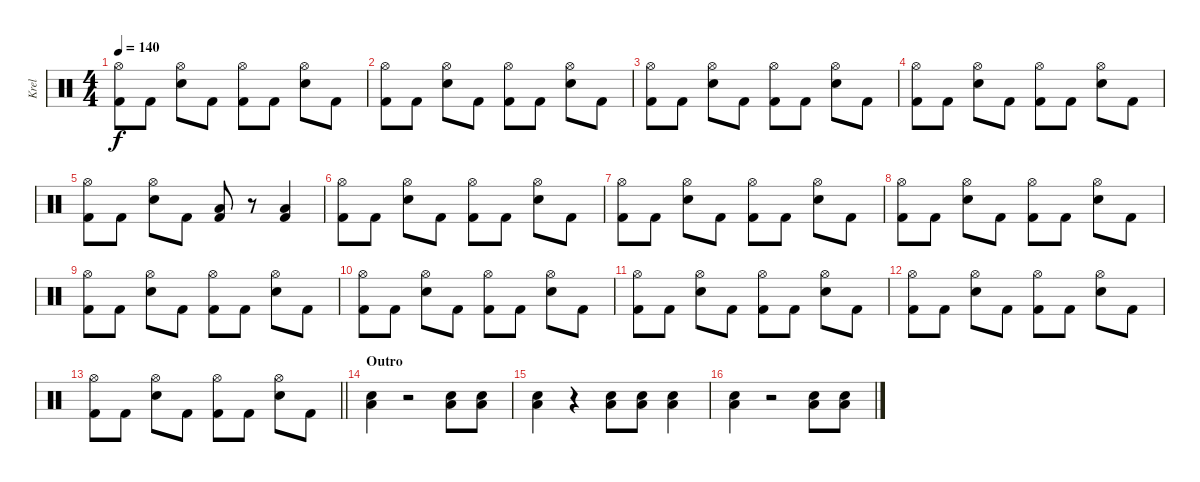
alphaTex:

\track ("Krel" "Krel") {instrument percussion}
\staff {score}
\articulation defaults
\ts (4 4)
\tempo 140
\clef neutral
\ks c
("Hi-Hat (open)" "Kick (hit) 2").8{dy f} "Kick (hit) 2".8 ("Hi-Hat (open)" "Snare (hit) 2").8 "Kick (hit) 2".8 ("Hi-Hat (open)" "Kick (hit) 2").8 "Kick (hit) 2".8 ("Hi-Hat (open)" "Snare (hit) 2").8 "Kick (hit) 2".8 |
("Hi-Hat (open)" "Kick (hit) 2").8 "Kick (hit) 2".8 ("Hi-Hat (open)" "Snare (hit) 2").8 "Kick (hit) 2".8 ("Hi-Hat (open)" "Kick (hit) 2").8 "Kick (hit) 2".8 ("Hi-Hat (open)" "Snare (hit) 2").8 "Kick (hit) 2".8 |
("Hi-Hat (open)" "Kick (hit) 2").8 "Kick (hit) 2".8 ("Hi-Hat (open)" "Snare (hit) 2").8 "Kick (hit) 2".8 ("Hi-Hat (open)" "Kick (hit) 2").8 "Kick (hit) 2".8 ("Hi-Hat (open)" "Snare (hit) 2").8 "Kick (hit) 2".8 |
("Hi-Hat (open)" "Kick (hit) 2").8 "Kick (hit) 2".8 ("Hi-Hat (open)" "Snare (hit) 2").8 "Kick (hit) 2".8 ("Hi-Hat (open)" "Kick (hit) 2").8 "Kick (hit) 2".8 ("Hi-Hat (open)" "Snare (hit) 2").8 "Kick (hit) 2".8 |
("Hi-Hat (open)" "Kick (hit) 2").8 "Kick (hit) 2".8 ("Hi-Hat (open)" "Snare (hit) 2").8 "Kick (hit) 2".8 ("Low Tom (hit)" "Kick (hit) 2").8 r.8 ("Low Floor Tom (hit)" "Kick (hit) 2").4 |
("Hi-Hat (open)" "Kick (hit) 2").8 "Kick (hit) 2".8 ("Hi-Hat (open)" "Snare (hit) 2").8 "Kick (hit) 2".8 ("Hi-Hat (open)" "Kick (hit) 2").8 "Kick (hit) 2".8 ("Hi-Hat (open)" "Snare (hit) 2").8 "Kick (hit) 2".8 |
("Hi-Hat (open)" "Kick (hit) 2").8 "Kick (hit) 2".8 ("Hi-Hat (open)" "Snare (hit) 2").8 "Kick (hit) 2".8 ("Hi-Hat (open)" "Kick (hit) 2").8 "Kick (hit) 2".8 ("Hi-Hat (open)" "Snare (hit) 2").8 "Kick (hit) 2".8 |
("Hi-Hat (open)" "Kick (hit) 2").8 "Kick (hit) 2".8 ("Hi-Hat (open)" "Snare (hit) 2").8 "Kick (hit) 2".8 ("Hi-Hat (open)" "Kick (hit) 2").8 "Kick (hit) 2".8 ("Hi-Hat (open)" "Snare (hit) 2").8 "Kick (hit) 2".8 |
("Hi-Hat (open)" "Kick (hit) 2").8 "Kick (hit) 2".8 ("Hi-Hat (open)" "Snare (hit) 2").8 "Kick (hit) 2".8 ("Hi-Hat (open)" "Kick (hit) 2").8 "Kick (hit) 2".8 ("Hi-Hat (open)" "Snare (hit) 2").8 "Kick (hit) 2".8 |
("Hi-Hat (open)" "Kick (hit) 2").8 "Kick (hit) 2".8 ("Hi-Hat (open)" "Snare (hit) 2").8 "Kick (hit) 2".8 ("Hi-Hat (open)" "Kick (hit) 2").8 "Kick (hit) 2".8 ("Hi-Hat (open)" "Snare (hit) 2").8 "Kick (hit) 2".8 |
("Hi-Hat (open)" "Kick (hit) 2").8 "Kick (hit) 2".8 ("Hi-Hat (open)" "Snare (hit) 2").8 "Kick (hit) 2".8 ("Hi-Hat (open)" "Kick (hit) 2").8 "Kick (hit) 2".8 ("Hi-Hat (open)" "Snare (hit) 2").8 "Kick (hit) 2".8 |
("Hi-Hat (open)" "Kick (hit) 2").8 "Kick (hit) 2".8 ("Hi-Hat (open)" "Snare (hit) 2").8 "Kick (hit) 2".8 ("Hi-Hat (open)" "Kick (hit) 2").8 "Kick (hit) 2".8 ("Hi-Hat (open)" "Snare (hit) 2").8 "Kick (hit) 2".8 |
\barLineRight lightlight
("Hi-Hat (open)" "Kick (hit) 2").8 "Kick (hit) 2".8 ("Hi-Hat (open)" "Snare (hit) 2").8 "Kick (hit) 2".8 ("Hi-Hat (open)" "Kick (hit) 2").8 "Kick (hit) 2".8 ("Hi-Hat (open)" "Snare (hit) 2").8 "Kick (hit) 2".8 |
\section ("" "Outro")
("Low Tom (hit)" "Snare (hit) 2").4 r.2 ("Low Tom (hit)" "Snare (hit) 2").8 ("Low Tom (hit)" "Snare (hit) 2").8 |
("Low Tom (hit)" "Snare (hit) 2").4 r.4 ("Low Tom (hit)" "Snare (hit) 2").8 ("Low Tom (hit)" "Snare (hit) 2").8 ("Low Tom (hit)" "Snare (hit) 2").4 |
("Low Tom (hit)" "Snare (hit) 2").4 r.2 ("Low Tom (hit)" "Snare (hit) 2").8 ("Low Tom (hit)" "Snare (hit) 2").8
